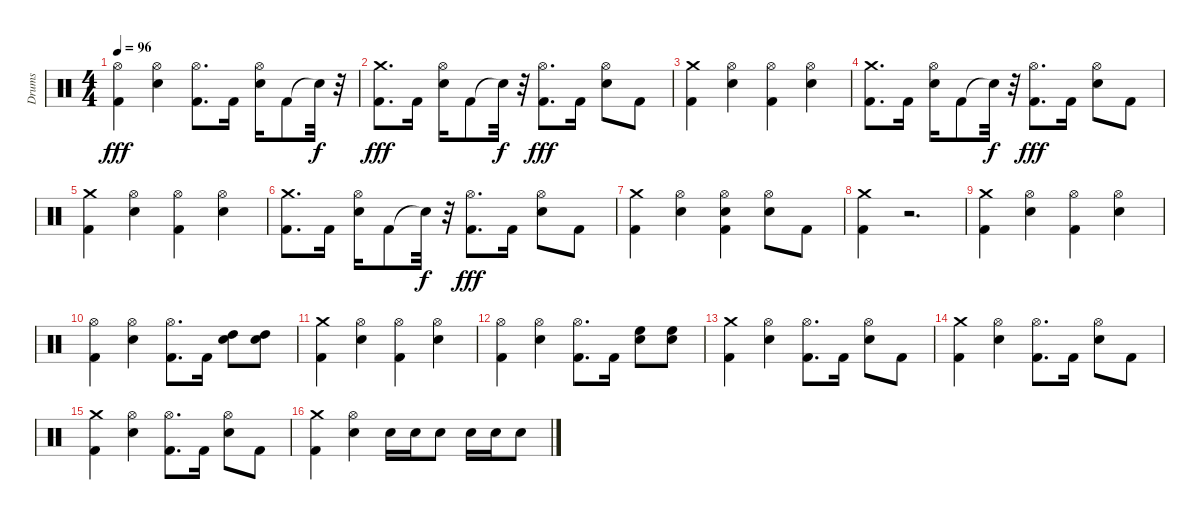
\track ("Drums" "Drums") {instrument percussion}
\staff {score}
\articulation defaults
\ts (4 4)
\tempo 96
\clef neutral
\ks c
("Hi-Hat (open)" "Kick (hit) 2").4{dy fff} ("Hi-Hat (open)" "Snare (hit) 2").4 ("Kick (hit) 2" "Hi-Hat (open)").8{d} "Kick (hit) 2".16 ("Hi-Hat (open)" "Snare (hit) 2").16 "Kick (hit) 2".8 "Snare (hit)"{t}.32{dy f} r.32 |
("Kick (hit) 2" "Crash medium (hit)").8{d dy fff} "Kick (hit) 2".16 ("Hi-Hat (open)" "Snare (hit) 2").16 "Kick (hit) 2".8 "Snare (hit)"{t}.32{dy f} r.32 ("Kick (hit) 2" "Hi-Hat (open)").8{d dy fff} "Kick (hit) 2".16 ("Snare (hit) 2" "Hi-Hat (open)").8 "Kick (hit) 2".8 |
("Kick (hit) 2" "Crash medium (hit)").4 ("Hi-Hat (open)" "Snare (hit) 2").4 ("Hi-Hat (open)" "Kick (hit) 2").4 ("Hi-Hat (open)" "Snare (hit) 2").4 |
("Kick (hit) 2" "Crash medium (hit)").8{d} "Kick (hit) 2".16 ("Hi-Hat (open)" "Snare (hit) 2").16 "Kick (hit) 2".8 "Snare (hit)"{t}.32{dy f} r.32 ("Kick (hit) 2" "Hi-Hat (open)").8{d dy fff} "Kick (hit) 2".16 ("Snare (hit) 2" "Hi-Hat (open)").8 "Kick (hit) 2".8 |
("Kick (hit) 2" "Crash medium (hit)").4 ("Hi-Hat (open)" "Snare (hit) 2").4 ("Hi-Hat (open)" "Kick (hit) 2").4 ("Hi-Hat (open)" "Snare (hit) 2").4 |
("Kick (hit) 2" "Crash medium (hit)").8{d} "Kick (hit) 2".16 ("Hi-Hat (open)" "Snare (hit) 2").16 "Kick (hit) 2".8 "Snare (hit)"{t}.32{dy f} r.32 ("Kick (hit) 2" "Hi-Hat (open)").8{d dy fff} "Kick (hit) 2".16 ("Snare (hit) 2" "Hi-Hat (open)").8 "Kick (hit) 2".8 |
("Kick (hit) 2" "Crash medium (hit)").4 ("Hi-Hat (open)" "Snare (hit) 2").4 ("Hi-Hat (open)" "Snare (hit) 2" "Kick (hit) 2").4 ("Hi-Hat (open)" "Snare (hit) 2").8 "Kick (hit) 2".8 |
("Kick (hit) 2" "Crash medium (hit)").4 r.2{d} |
("Kick (hit) 2" "Crash medium (hit)").4 ("Hi-Hat (open)" "Snare (hit) 2").4 ("Hi-Hat (open)" "Kick (hit) 2").4 ("Hi-Hat (open)" "Snare (hit) 2").4 |
("Hi-Hat (open)" "Kick (hit) 2").4 ("Hi-Hat (open)" "Snare (hit) 2").4 ("Hi-Hat (open)" "Kick (hit) 2").8{d} "Kick (hit) 2".16 ("Snare (hit) 2" "High Tom (hit)").8 ("Snare (hit) 2" "High Tom (hit)").8 |
("Kick (hit) 2" "Crash medium (hit)").4 ("Hi-Hat (open)" "Snare (hit) 2").4 ("Hi-Hat (open)" "Kick (hit) 2").4 ("Hi-Hat (open)" "Snare (hit) 2").4 |
("Hi-Hat (open)" "Kick (hit) 2").4 ("Hi-Hat (open)" "Snare (hit) 2").4 ("Hi-Hat (open)" "Kick (hit) 2").8{d} "Kick (hit) 2".16 ("High Floor Tom (hit)" "Snare (hit) 2").8 ("High Floor Tom (hit)" "Snare (hit) 2").8 |
("Kick (hit) 2" "Crash medium (hit)").4 ("Hi-Hat (open)" "Snare (hit) 2").4 ("Kick (hit) 2" "Hi-Hat (open)").8{d} "Kick (hit) 2".16 ("Snare (hit) 2" "Hi-Hat (open)").8 "Kick (hit) 2".8 |
("Kick (hit) 2" "Crash medium (hit)").4 ("Hi-Hat (open)" "Snare (hit) 2").4 ("Kick (hit) 2" "Hi-Hat (open)").8{d} "Kick (hit) 2".16 ("Snare (hit) 2" "Hi-Hat (open)").8 "Kick (hit) 2".8 |
("Kick (hit) 2" "Crash medium (hit)").4 ("Hi-Hat (open)" "Snare (hit) 2").4 ("Kick (hit) 2" "Hi-Hat (open)").8{d} "Kick (hit) 2".16 ("Snare (hit) 2" "Hi-Hat (open)").8 "Kick (hit) 2".8 |
("Kick (hit) 2" "Crash medium (hit)").4 ("Hi-Hat (open)" "Snare (hit) 2").4 "Snare (hit) 2".16 "Snare (hit) 2".16 "Snare (hit) 2".8 "Snare (hit) 2".16 "Snare (hit) 2".16 "Snare (hit) 2".8
